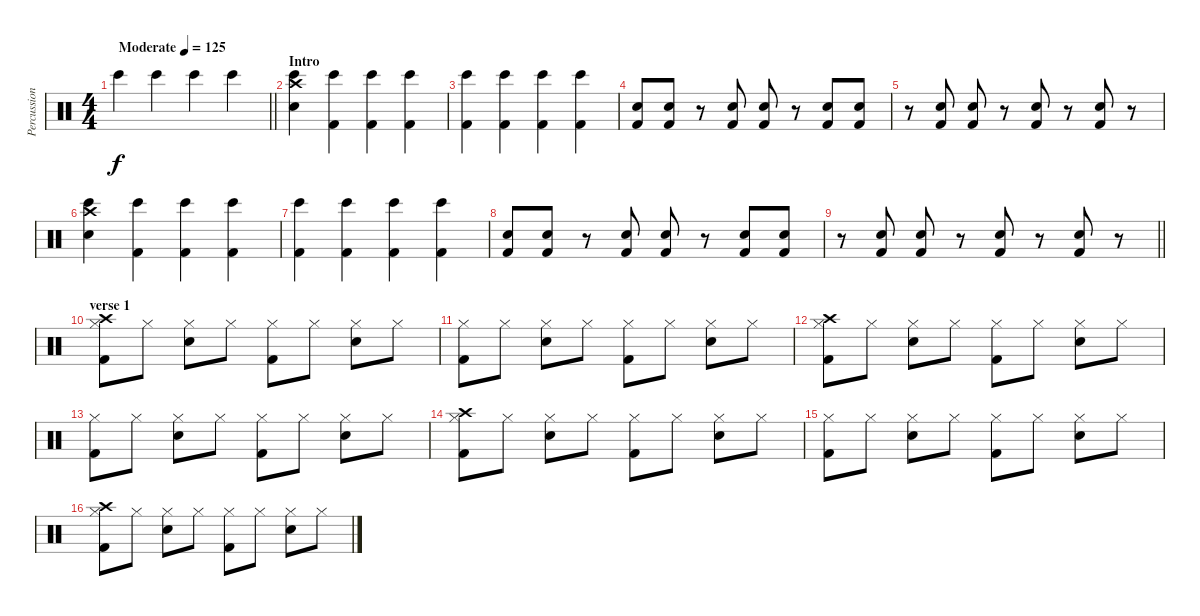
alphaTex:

\track ("Percussion" "Percussion") {instrument percussion}
\staff {score}
\articulation defaults
\ts (4 4)
\tempo (125 "Moderate")
\clef neutral
\barLineRight lightlight
\ks c "Bongo High (hit)".4{dy f} "Bongo High (hit)".4 "Bongo High (hit)".4 "Bongo High (hit)".4
|
\section ("" "Intro")
("Crash high (hit)" "Snare (hit) 2" "Bongo High (hit)").4 ("Kick (hit) 2" "Bongo High (hit)").4 ("Kick (hit) 2" "Bongo High (hit)").4 ("Kick (hit) 2" "Bongo High (hit)").4 |
("Kick (hit) 2" "Bongo High (hit)").4 ("Kick (hit) 2" "Bongo High (hit)").4 ("Kick (hit) 2" "Bongo High (hit)").4 ("Kick (hit) 2" "Bongo High (hit)").4 |
("Snare (hit) 2" "Kick (hit) 2").8 ("Snare (hit) 2" "Kick (hit) 2").8 r.8 ("Snare (hit) 2" "Kick (hit) 2").8 ("Snare (hit) 2" "Kick (hit) 2").8 r.8 ("Snare (hit) 2" "Kick (hit) 2").8 ("Snare (hit) 2" "Kick (hit) 2").8 |
r.8 ("Snare (hit) 2" "Kick (hit) 2").8 ("Snare (hit) 2" "Kick (hit) 2").8 r.8 ("Snare (hit) 2" "Kick (hit) 2").8 r.8 ("Snare (hit) 2" "Kick (hit) 2").8 r.8 |
("Crash high (hit)" "Snare (hit) 2" "Bongo High (hit)").4 ("Kick (hit) 2" "Bongo High (hit)").4 ("Kick (hit) 2" "Bongo High (hit)").4 ("Kick (hit) 2" "Bongo High (hit)").4 |
("Kick (hit) 2" "Bongo High (hit)").4 ("Kick (hit) 2" "Bongo High (hit)").4 ("Kick (hit) 2" "Bongo High (hit)").4 ("Kick (hit) 2" "Bongo High (hit)").4 |
("Snare (hit) 2" "Kick (hit) 2").8 ("Snare (hit) 2" "Kick (hit) 2").8 r.8 ("Snare (hit) 2" "Kick (hit) 2").8 ("Snare (hit) 2" "Kick (hit) 2").8 r.8 ("Snare (hit) 2" "Kick (hit) 2").8 ("Snare (hit) 2" "Kick (hit) 2").8 |
\barLineRight lightlight
r.8 ("Snare (hit) 2" "Kick (hit) 2").8 ("Snare (hit) 2" "Kick (hit) 2").8 r.8 ("Snare (hit) 2" "Kick (hit) 2").8 r.8 ("Snare (hit) 2" "Kick (hit) 2").8 r.8 |
\section ("" "verse 1")
("Crash high (hit)" "Hi-Hat (closed)" "Kick (hit) 2").8 "Hi-Hat (closed)".8 ("Hi-Hat (closed)" "Snare (hit) 2").8 "Hi-Hat (closed)".8 ("Hi-Hat (closed)" "Kick (hit) 2").8 "Hi-Hat (closed)".8 ("Hi-Hat (closed)" "Snare (hit) 2").8 "Hi-Hat (closed)".8 |
("Hi-Hat (closed)" "Kick (hit) 2").8 "Hi-Hat (closed)".8 ("Hi-Hat (closed)" "Snare (hit) 2").8 "Hi-Hat (closed)".8 ("Hi-Hat (closed)" "Kick (hit) 2").8 "Hi-Hat (closed)".8 ("Hi-Hat (closed)" "Snare (hit) 2").8 "Hi-Hat (closed)".8 |
("Crash high (hit)" "Hi-Hat (closed)" "Kick (hit) 2").8 "Hi-Hat (closed)".8 ("Hi-Hat (closed)" "Snare (hit) 2").8 "Hi-Hat (closed)".8 ("Hi-Hat (closed)" "Kick (hit) 2").8 "Hi-Hat (closed)".8 ("Hi-Hat (closed)" "Snare (hit) 2").8 "Hi-Hat (closed)".8 |
("Hi-Hat (closed)" "Kick (hit) 2").8 "Hi-Hat (closed)".8 ("Hi-Hat (closed)" "Snare (hit) 2").8 "Hi-Hat (closed)".8 ("Hi-Hat (closed)" "Kick (hit) 2").8 "Hi-Hat (closed)".8 ("Hi-Hat (closed)" "Snare (hit) 2").8 "Hi-Hat (closed)".8 |
("Crash high (hit)" "Hi-Hat (closed)" "Kick (hit) 2").8 "Hi-Hat (closed)".8 ("Hi-Hat (closed)" "Snare (hit) 2").8 "Hi-Hat (closed)".8 ("Hi-Hat (closed)" "Kick (hit) 2").8 "Hi-Hat (closed)".8 ("Hi-Hat (closed)" "Snare (hit) 2").8 "Hi-Hat (closed)".8 |
("Hi-Hat (closed)" "Kick (hit) 2").8 "Hi-Hat (closed)".8 ("Hi-Hat (closed)" "Snare (hit) 2").8 "Hi-Hat (closed)".8 ("Hi-Hat (closed)" "Kick (hit) 2").8 "Hi-Hat (closed)".8 ("Hi-Hat (closed)" "Snare (hit) 2").8 "Hi-Hat (closed)".8 |
("Crash high (hit)" "Hi-Hat (closed)" "Kick (hit) 2").8 "Hi-Hat (closed)".8 ("Hi-Hat (closed)" "Snare (hit) 2").8 "Hi-Hat (closed)".8 ("Hi-Hat (closed)" "Kick (hit) 2").8 "Hi-Hat (closed)".8 ("Hi-Hat (closed)" "Snare (hit) 2").8 "Hi-Hat (closed)".8
